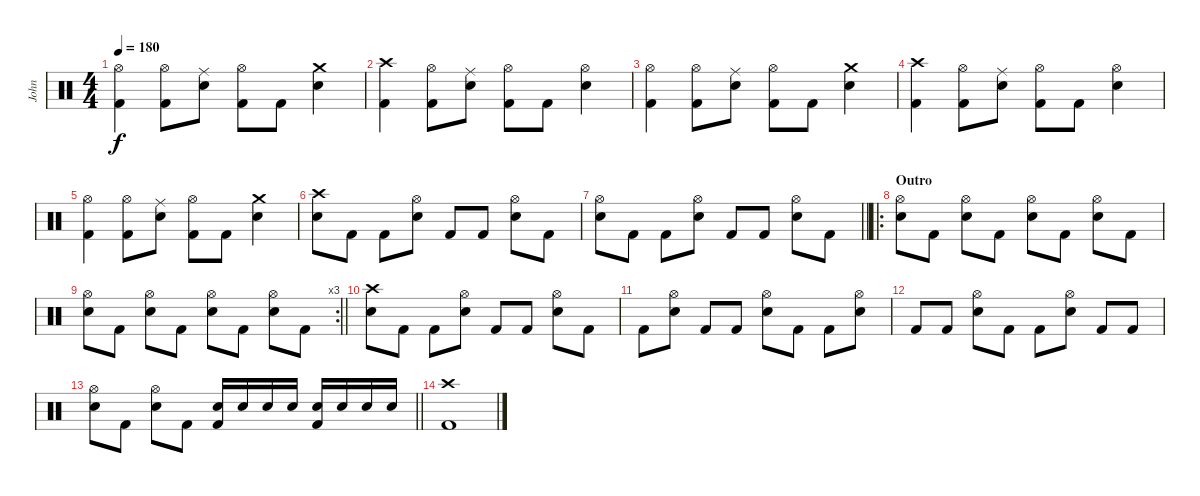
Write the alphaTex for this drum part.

\track ("John" "John") {instrument percussion}
\staff {score}
\articulation defaults
\ts (4 4)
\tempo 180
\clef neutral
\ks c
("Hi-Hat (open)" "Kick (hit) 2").4{dy f} ("Hi-Hat (open)" "Kick (hit) 2").8 ("Ride (middle)" "Snare (hit) 2").8 ("Hi-Hat (open)" "Kick (hit) 2").8 "Kick (hit) 2".8 ("Crash medium (hit)" "Snare (hit) 2").4 |
("Crash high (hit)" "Kick (hit) 2").4 ("Hi-Hat (open)" "Kick (hit) 2").8 ("Ride (middle)" "Snare (hit) 2").8 ("Hi-Hat (open)" "Kick (hit) 2").8 "Kick (hit) 2".8 ("Hi-Hat (open)" "Snare (hit) 2").4 |
("Hi-Hat (open)" "Kick (hit) 2").4 ("Hi-Hat (open)" "Kick (hit) 2").8 ("Ride (middle)" "Snare (hit) 2").8 ("Hi-Hat (open)" "Kick (hit) 2").8 "Kick (hit) 2".8 ("Crash medium (hit)" "Snare (hit) 2").4 |
("Crash high (hit)" "Kick (hit) 2").4 ("Hi-Hat (open)" "Kick (hit) 2").8 ("Ride (middle)" "Snare (hit) 2").8 ("Hi-Hat (open)" "Kick (hit) 2").8 "Kick (hit) 2".8 ("Hi-Hat (open)" "Snare (hit) 2").4 |
("Hi-Hat (open)" "Kick (hit) 2").4 ("Hi-Hat (open)" "Kick (hit) 2").8 ("Ride (middle)" "Snare (hit) 2").8 ("Hi-Hat (open)" "Kick (hit) 2").8 "Kick (hit) 2".8 ("Crash medium (hit)" "Snare (hit) 2").4 |
("Crash high (hit)" "Snare (hit) 2").8 "Kick (hit) 2".8 "Kick (hit) 2".8 ("Hi-Hat (open)" "Snare (hit) 2").8 "Kick (hit) 2".8 "Kick (hit) 2".8 ("Hi-Hat (open)" "Snare (hit) 2").8 "Kick (hit) 2".8 |
\barLineRight lightlight
("Hi-Hat (open)" "Snare (hit) 2").8 "Kick (hit) 2".8 "Kick (hit) 2".8 ("Hi-Hat (open)" "Snare (hit) 2").8 "Kick (hit) 2".8 "Kick (hit) 2".8 ("Hi-Hat (open)" "Snare (hit) 2").8 "Kick (hit) 2".8 |
\ro
\section ("" "Outro")
("Hi-Hat (open)" "Snare (hit) 2").8 "Kick (hit) 2".8 ("Hi-Hat (open)" "Snare (hit) 2").8 "Kick (hit) 2".8 ("Hi-Hat (open)" "Snare (hit) 2").8 "Kick (hit) 2".8 ("Hi-Hat (open)" "Snare (hit) 2").8 "Kick (hit) 2".8 |
\rc 3
\barLineRight lightlight
("Hi-Hat (open)" "Snare (hit) 2").8 "Kick (hit) 2".8 ("Hi-Hat (open)" "Snare (hit) 2").8 "Kick (hit) 2".8 ("Hi-Hat (open)" "Snare (hit) 2").8 "Kick (hit) 2".8 ("Hi-Hat (open)" "Snare (hit) 2").8 "Kick (hit) 2".8 |
("Crash high (hit)" "Snare (hit) 2").8 "Kick (hit) 2".8 "Kick (hit) 2".8 ("Hi-Hat (open)" "Snare (hit) 2").8 "Kick (hit) 2".8 "Kick (hit) 2".8 ("Hi-Hat (open)" "Snare (hit) 2").8 "Kick (hit) 2".8 |
"Kick (hit) 2".8 ("Hi-Hat (open)" "Snare (hit) 2").8 "Kick (hit) 2".8 "Kick (hit) 2".8 ("Hi-Hat (open)" "Snare (hit) 2").8 "Kick (hit) 2".8 "Kick (hit) 2".8 ("Hi-Hat (open)" "Snare (hit) 2").8 |
"Kick (hit) 2".8 "Kick (hit) 2".8 ("Hi-Hat (open)" "Snare (hit) 2").8 "Kick (hit) 2".8 "Kick (hit) 2".8 ("Hi-Hat (open)" "Snare (hit) 2").8 "Kick (hit) 2".8 "Kick (hit) 2".8 |
\barLineRight lightlight
("Snare (hit) 2" "Hi-Hat (open)").8 "Kick (hit) 2".8 ("Snare (hit) 2" "Hi-Hat (open)").8 "Kick (hit) 2".8 ("Snare (hit) 2" "Kick (hit) 2").16 "Snare (hit) 2".16 "Snare (hit) 2".16 "Snare (hit) 2".16 ("Snare (hit) 2" "Kick (hit) 2").16 "Snare (hit) 2".16 "Snare (hit) 2".16 "Snare (hit) 2".16 |
("Crash high (hit)" "Kick (hit) 2").1
